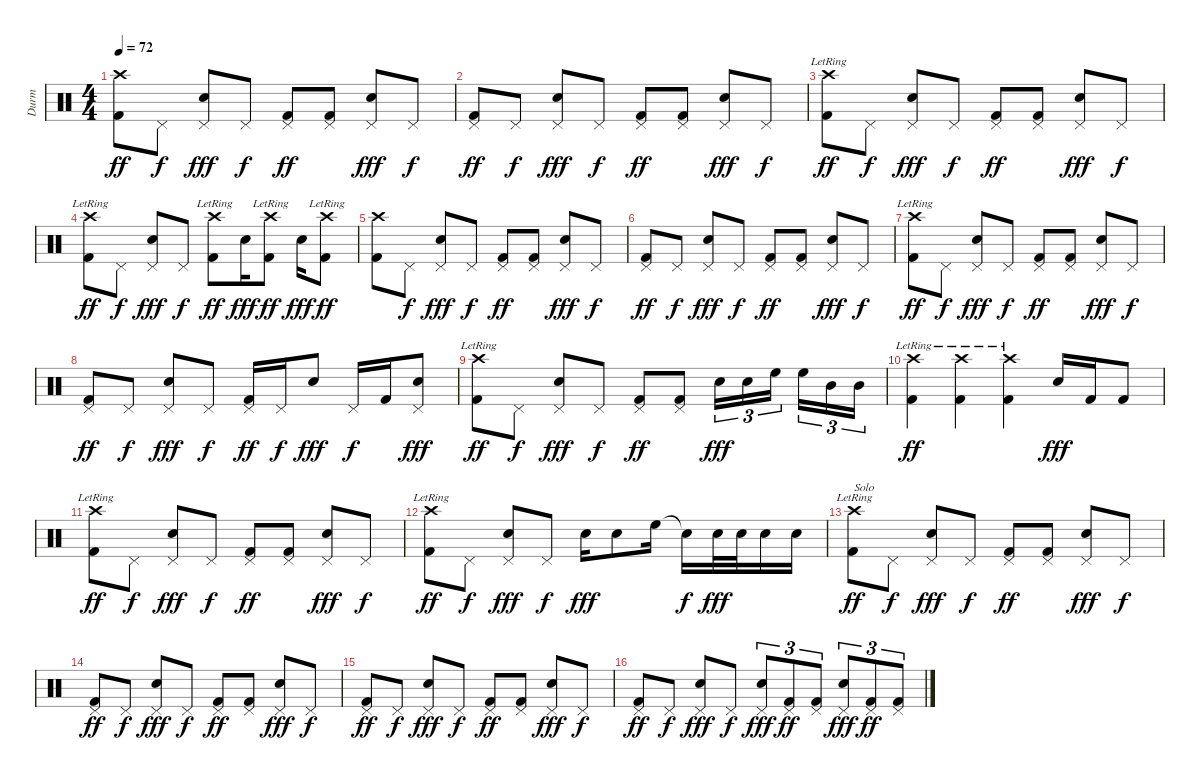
\track ("Durm" "Durm") {instrument percussion}
\staff {score}
\articulation defaults
\ts (4 4)
\tempo 72
\clef neutral
\ks c
("Crash high (hit)" "Kick (hit) 2").8{dy ff} "Pedal Hi-Hat (hit)".8{dy f} ("Pedal Hi-Hat (hit)" "Electric Snare (hit)").8{dy fff} "Pedal Hi-Hat (hit)".8{dy f} ("Pedal Hi-Hat (hit)" "Kick (hit) 2").8{dy ff} ("Pedal Hi-Hat (hit)" "Kick (hit) 2").8 ("Pedal Hi-Hat (hit)" "Electric Snare (hit)").8{dy fff} "Pedal Hi-Hat (hit)".8{dy f} |
("Pedal Hi-Hat (hit)" "Kick (hit) 2").8{dy ff} "Pedal Hi-Hat (hit)".8{dy f} ("Pedal Hi-Hat (hit)" "Electric Snare (hit)").8{dy fff} "Pedal Hi-Hat (hit)".8{dy f} ("Pedal Hi-Hat (hit)" "Kick (hit) 2").8{dy ff} ("Pedal Hi-Hat (hit)" "Kick (hit) 2").8 ("Pedal Hi-Hat (hit)" "Electric Snare (hit)").8{dy fff} "Pedal Hi-Hat (hit)".8{dy f} |
("Crash high (hit)"{lr} "Kick (hit) 2").8{dy ff} "Pedal Hi-Hat (hit)".8{dy f} ("Pedal Hi-Hat (hit)" "Electric Snare (hit)").8{dy fff} "Pedal Hi-Hat (hit)".8{dy f} ("Pedal Hi-Hat (hit)" "Kick (hit) 2").8{dy ff} ("Pedal Hi-Hat (hit)" "Kick (hit) 2").8 ("Pedal Hi-Hat (hit)" "Electric Snare (hit)").8{dy fff} "Pedal Hi-Hat (hit)".8{dy f} |
("Crash high (hit)"{lr} "Kick (hit) 2").8{dy ff} "Pedal Hi-Hat (hit)".8{dy f} ("Pedal Hi-Hat (hit)" "Electric Snare (hit)").8{dy fff} "Pedal Hi-Hat (hit)".8{dy f} ("Crash high (hit)"{lr} "Kick (hit) 2").8{dy ff} "Electric Snare (hit)".16{dy fff} ("Crash high (hit)"{lr} "Kick (hit) 2").8{dy ff} "Electric Snare (hit)".16{dy fff} ("Crash high (hit)"{lr} "Kick (hit) 2").8{dy ff} |
("Crash high (hit)" "Kick (hit) 2").8 "Pedal Hi-Hat (hit)".8{dy f} ("Pedal Hi-Hat (hit)" "Electric Snare (hit)").8{dy fff} "Pedal Hi-Hat (hit)".8{dy f} ("Pedal Hi-Hat (hit)" "Kick (hit) 2").8{dy ff} ("Pedal Hi-Hat (hit)" "Kick (hit) 2").8 ("Pedal Hi-Hat (hit)" "Electric Snare (hit)").8{dy fff} "Pedal Hi-Hat (hit)".8{dy f} |
("Pedal Hi-Hat (hit)" "Kick (hit) 2").8{dy ff} "Pedal Hi-Hat (hit)".8{dy f} ("Pedal Hi-Hat (hit)" "Electric Snare (hit)").8{dy fff} "Pedal Hi-Hat (hit)".8{dy f} ("Pedal Hi-Hat (hit)" "Kick (hit) 2").8{dy ff} ("Pedal Hi-Hat (hit)" "Kick (hit) 2").8 ("Pedal Hi-Hat (hit)" "Electric Snare (hit)").8{dy fff} "Pedal Hi-Hat (hit)".8{dy f} |
("Crash high (hit)"{lr} "Kick (hit) 2").8{dy ff} "Pedal Hi-Hat (hit)".8{dy f} ("Pedal Hi-Hat (hit)" "Electric Snare (hit)").8{dy fff} "Pedal Hi-Hat (hit)".8{dy f} ("Pedal Hi-Hat (hit)" "Kick (hit) 2").8{dy ff} ("Pedal Hi-Hat (hit)" "Kick (hit) 2").8 ("Pedal Hi-Hat (hit)" "Electric Snare (hit)").8{dy fff} "Pedal Hi-Hat (hit)".8{dy f} |
("Pedal Hi-Hat (hit)" "Kick (hit) 2").8{dy ff} "Pedal Hi-Hat (hit)".8{dy f} ("Pedal Hi-Hat (hit)" "Electric Snare (hit)").8{dy fff} "Pedal Hi-Hat (hit)".8{dy f} ("Pedal Hi-Hat (hit)" "Kick (hit) 2").16{dy ff} "Pedal Hi-Hat (hit)".16{dy f} "Electric Snare (hit)".8{dy fff} "Pedal Hi-Hat (hit)".16{dy f} "Kick (hit) 2".16 ("Pedal Hi-Hat (hit)" "Electric Snare (hit)").8{dy fff} |
("Crash high (hit)"{lr} "Kick (hit) 2").8{dy ff} "Pedal Hi-Hat (hit)".8{dy f} ("Pedal Hi-Hat (hit)" "Electric Snare (hit)").8{dy fff} "Pedal Hi-Hat (hit)".8{dy f} ("Pedal Hi-Hat (hit)" "Kick (hit) 2").8{dy ff} ("Pedal Hi-Hat (hit)" "Kick (hit) 2").8 "Electric Snare (hit)".16{tu (3 2) dy fff} "Electric Snare (hit)".16{tu (3 2)} "High Floor Tom (hit)".16{tu (3 2)} "High Floor Tom (hit)".16{tu (3 2)} "Mid Tom (hit)".16{tu (3 2)} "Mid Tom (hit)".16{tu (3 2)} |
("Crash high (hit)"{lr} "Kick (hit) 2").4{dy ff} ("Crash high (hit)"{lr} "Kick (hit) 2").4 ("Crash high (hit)"{lr} "Kick (hit) 2").4 "Electric Snare (hit)".16{dy fff} "Kick (hit) 2".16 "Kick (hit) 2".8 |
("Crash high (hit)"{lr} "Kick (hit) 2").8{dy ff} "Pedal Hi-Hat (hit)".8{dy f} ("Pedal Hi-Hat (hit)" "Electric Snare (hit)").8{dy fff} "Pedal Hi-Hat (hit)".8{dy f} ("Pedal Hi-Hat (hit)" "Kick (hit) 2").8{dy ff} ("Pedal Hi-Hat (hit)" "Kick (hit) 2").8 ("Pedal Hi-Hat (hit)" "Electric Snare (hit)").8{dy fff} "Pedal Hi-Hat (hit)".8{dy f} |
("Crash high (hit)"{lr} "Kick (hit) 2").8{dy ff} "Pedal Hi-Hat (hit)".8{dy f} ("Pedal Hi-Hat (hit)" "Electric Snare (hit)").8{dy fff} "Pedal Hi-Hat (hit)".8{dy f} "Electric Snare (hit)".16{dy fff} "Electric Snare (hit)".8 "High Floor Tom (hit)".16 "Snare (hit)"{t}.16{dy f} "Electric Snare (hit)".32{dy fff} "Electric Snare (hit)".32 "Electric Snare (hit)".16 "Electric Snare (hit)".16 |
("Crash high (hit)"{lr} "Kick (hit) 2").8{txt "Solo" dy ff} "Pedal Hi-Hat (hit)".8{dy f} ("Pedal Hi-Hat (hit)" "Electric Snare (hit)").8{dy fff} "Pedal Hi-Hat (hit)".8{dy f} ("Pedal Hi-Hat (hit)" "Kick (hit) 2").8{dy ff} ("Pedal Hi-Hat (hit)" "Kick (hit) 2").8 ("Pedal Hi-Hat (hit)" "Electric Snare (hit)").8{dy fff} "Pedal Hi-Hat (hit)".8{dy f} |
("Pedal Hi-Hat (hit)" "Kick (hit) 2").8{dy ff} "Pedal Hi-Hat (hit)".8{dy f} ("Pedal Hi-Hat (hit)" "Electric Snare (hit)").8{dy fff} "Pedal Hi-Hat (hit)".8{dy f} ("Pedal Hi-Hat (hit)" "Kick (hit) 2").8{dy ff} ("Pedal Hi-Hat (hit)" "Kick (hit) 2").8 ("Pedal Hi-Hat (hit)" "Electric Snare (hit)").8{dy fff} "Pedal Hi-Hat (hit)".8{dy f} |
("Pedal Hi-Hat (hit)" "Kick (hit) 2").8{dy ff} "Pedal Hi-Hat (hit)".8{dy f} ("Pedal Hi-Hat (hit)" "Electric Snare (hit)").8{dy fff} "Pedal Hi-Hat (hit)".8{dy f} ("Pedal Hi-Hat (hit)" "Kick (hit) 2").8{dy ff} ("Pedal Hi-Hat (hit)" "Kick (hit) 2").8 ("Pedal Hi-Hat (hit)" "Electric Snare (hit)").8{dy fff} "Pedal Hi-Hat (hit)".8{dy f} |
("Pedal Hi-Hat (hit)" "Kick (hit) 2").8{dy ff} "Pedal Hi-Hat (hit)".8{dy f} ("Pedal Hi-Hat (hit)" "Electric Snare (hit)").8{dy fff} "Pedal Hi-Hat (hit)".8{dy f} ("Pedal Hi-Hat (hit)" "Electric Snare (hit)").8{tu (3 2) dy fff} ("Pedal Hi-Hat (hit)" "Kick (hit) 2").8{tu (3 2) dy ff} ("Pedal Hi-Hat (hit)" "Kick (hit) 2").8{tu (3 2)} ("Pedal Hi-Hat (hit)" "Electric Snare (hit)").8{tu (3 2) dy fff} ("Pedal Hi-Hat (hit)" "Kick (hit) 2").8{tu (3 2) dy ff} ("Pedal Hi-Hat (hit)" "Kick (hit) 2").8{tu (3 2)}
